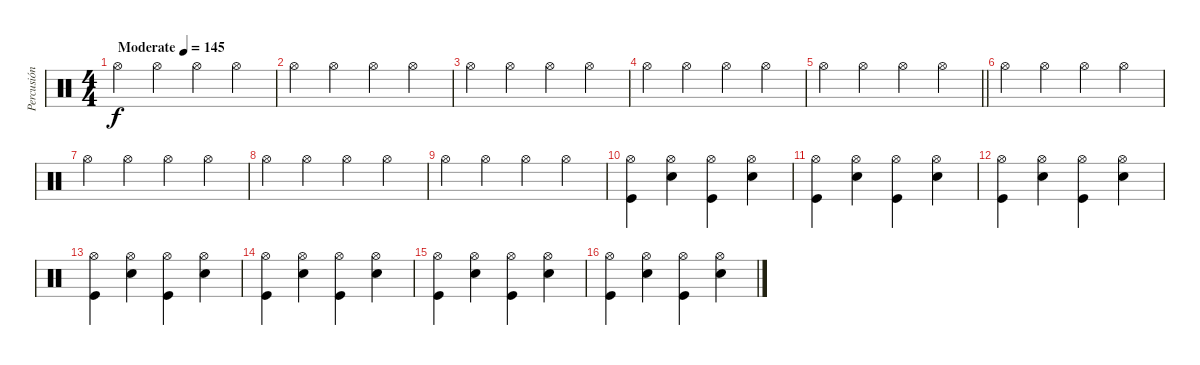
\track ("Percusión" "Percusión") {instrument percussion}
\staff {score}
\articulation defaults
\ts (4 4)
\tempo (145 "Moderate")
\clef neutral
\ks c "Hi-Hat (open)".4{dy f} "Hi-Hat (open)".4 "Hi-Hat (open)".4 "Hi-Hat (open)".4
|
"Hi-Hat (open)".4 "Hi-Hat (open)".4 "Hi-Hat (open)".4 "Hi-Hat (open)".4 |
"Hi-Hat (open)".4 "Hi-Hat (open)".4 "Hi-Hat (open)".4 "Hi-Hat (open)".4 |
"Hi-Hat (open)".4 "Hi-Hat (open)".4 "Hi-Hat (open)".4 "Hi-Hat (open)".4 |
\barLineRight lightlight "Hi-Hat (open)".4 "Hi-Hat (open)".4 "Hi-Hat (open)".4 "Hi-Hat (open)".4
|
"Hi-Hat (open)".4 "Hi-Hat (open)".4 "Hi-Hat (open)".4 "Hi-Hat (open)".4 |
"Hi-Hat (open)".4 "Hi-Hat (open)".4 "Hi-Hat (open)".4 "Hi-Hat (open)".4 |
"Hi-Hat (open)".4 "Hi-Hat (open)".4 "Hi-Hat (open)".4 "Hi-Hat (open)".4 |
"Hi-Hat (open)".4 "Hi-Hat (open)".4 "Hi-Hat (open)".4 "Hi-Hat (open)".4 |
("Hi-Hat (open)" "Kick (hit)").4 ("Hi-Hat (open)" "Snare (hit) 2").4 ("Hi-Hat (open)" "Kick (hit)").4 ("Hi-Hat (open)" "Snare (hit) 2").4 |
("Hi-Hat (open)" "Kick (hit)").4 ("Hi-Hat (open)" "Snare (hit) 2").4 ("Hi-Hat (open)" "Kick (hit)").4 ("Hi-Hat (open)" "Snare (hit) 2").4 |
("Hi-Hat (open)" "Kick (hit)").4 ("Hi-Hat (open)" "Snare (hit) 2").4 ("Hi-Hat (open)" "Kick (hit)").4 ("Hi-Hat (open)" "Snare (hit) 2").4 |
("Hi-Hat (open)" "Kick (hit)").4 ("Hi-Hat (open)" "Snare (hit) 2").4 ("Hi-Hat (open)" "Kick (hit)").4 ("Hi-Hat (open)" "Snare (hit) 2").4 |
("Hi-Hat (open)" "Kick (hit)").4 ("Hi-Hat (open)" "Snare (hit) 2").4 ("Hi-Hat (open)" "Kick (hit)").4 ("Hi-Hat (open)" "Snare (hit) 2").4 |
("Hi-Hat (open)" "Kick (hit)").4 ("Hi-Hat (open)" "Snare (hit) 2").4 ("Hi-Hat (open)" "Kick (hit)").4 ("Hi-Hat (open)" "Snare (hit) 2").4 |
("Hi-Hat (open)" "Kick (hit)").4 ("Hi-Hat (open)" "Snare (hit) 2").4 ("Hi-Hat (open)" "Kick (hit)").4 ("Hi-Hat (open)" "Snare (hit) 2").4
